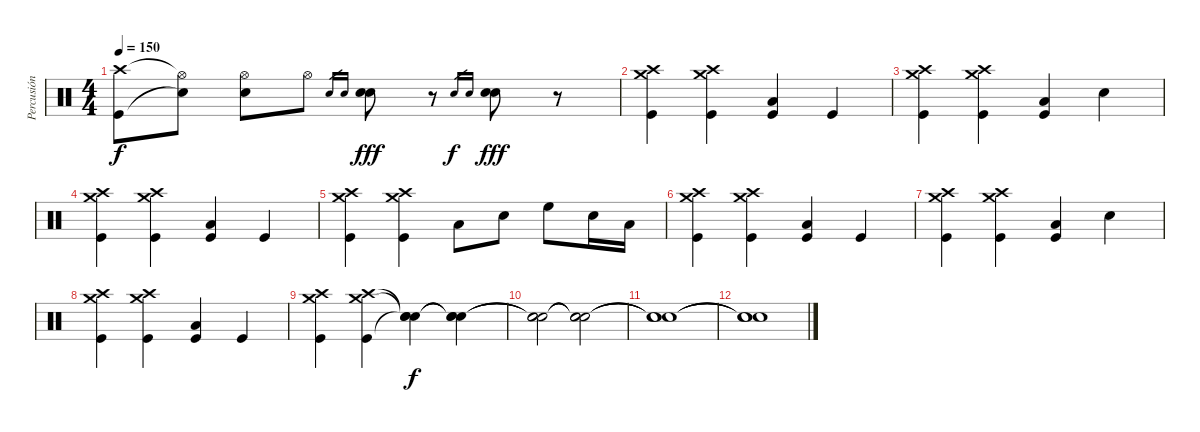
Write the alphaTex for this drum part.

\track ("Percusión" "Percusión") {instrument percussion}
\staff {score}
\articulation defaults
\ts (4 4)
\tempo 150
\clef neutral
\ks c
("Kick (hit)" "Crash high (hit)").8{dy f} ("Snare (hit)"{t} "Hi-Hat (open)"{t}).8 ("Electric Snare (hit)" "Hi-Hat (open)").8 "Hi-Hat (open)".8 "Electric Snare (hit)".16{gr} "Electric Snare (hit)".16{gr} ("Electric Snare (hit)" "Electric Snare (hit)").8{dy fff} r.8 "Electric Snare (hit)".16{gr dy f} "Electric Snare (hit)".16{gr} ("Electric Snare (hit)" "Electric Snare (hit)").8{dy fff} r.8 |
("Kick (hit)" "Crash high (hit)" "Crash medium (hit)").4 ("Kick (hit)" "Crash high (hit)" "Crash medium (hit)").4 ("Kick (hit)" "Low Floor Tom (hit)").4 "Kick (hit)".4 |
("Kick (hit)" "Crash high (hit)" "Crash medium (hit)").4 ("Kick (hit)" "Crash high (hit)" "Crash medium (hit)").4 ("Kick (hit)" "Low Floor Tom (hit)").4 "Electric Snare (hit)".4 |
("Kick (hit)" "Crash high (hit)" "Crash medium (hit)").4 ("Kick (hit)" "Crash high (hit)" "Crash medium (hit)").4 ("Kick (hit)" "Low Floor Tom (hit)").4 "Kick (hit)".4 |
("Kick (hit)" "Crash high (hit)" "Crash medium (hit)").4 ("Kick (hit)" "Crash high (hit)" "Crash medium (hit)").4 "Low Floor Tom (hit)".8 "Electric Snare (hit)".8 "High Floor Tom (hit)".8 "Electric Snare (hit)".16 "Low Floor Tom (hit)".16 |
("Kick (hit)" "Crash high (hit)" "Crash medium (hit)").4 ("Kick (hit)" "Crash high (hit)" "Crash medium (hit)").4 ("Kick (hit)" "Low Floor Tom (hit)").4 "Kick (hit)".4 |
("Kick (hit)" "Crash high (hit)" "Crash medium (hit)").4 ("Kick (hit)" "Crash high (hit)" "Crash medium (hit)").4 ("Kick (hit)" "Low Floor Tom (hit)").4 "Electric Snare (hit)".4 |
("Kick (hit)" "Crash high (hit)" "Crash medium (hit)").4 ("Kick (hit)" "Crash high (hit)" "Crash medium (hit)").4 ("Kick (hit)" "Low Floor Tom (hit)").4 "Kick (hit)".4 |
("Kick (hit)" "Crash high (hit)" "Crash medium (hit)").4 ("Kick (hit)" "Crash high (hit)" "Crash medium (hit)").4 ("Snare (hit)"{t} "Snare (hit)"{t} "Snare (hit)"{t}).4{dy f} ("Snare (hit)"{t} "Snare (hit)"{t} "Snare (hit)"{t}).4 |
("Snare (hit)"{t} "Snare (hit)"{t} "Snare (hit)"{t}).2 ("Snare (hit)"{t} "Snare (hit)"{t} "Snare (hit)"{t}).2 |
("Snare (hit)"{t} "Snare (hit)"{t} "Snare (hit)"{t}).1 |
("Snare (hit)"{t} "Snare (hit)"{t} "Snare (hit)"{t}).1
